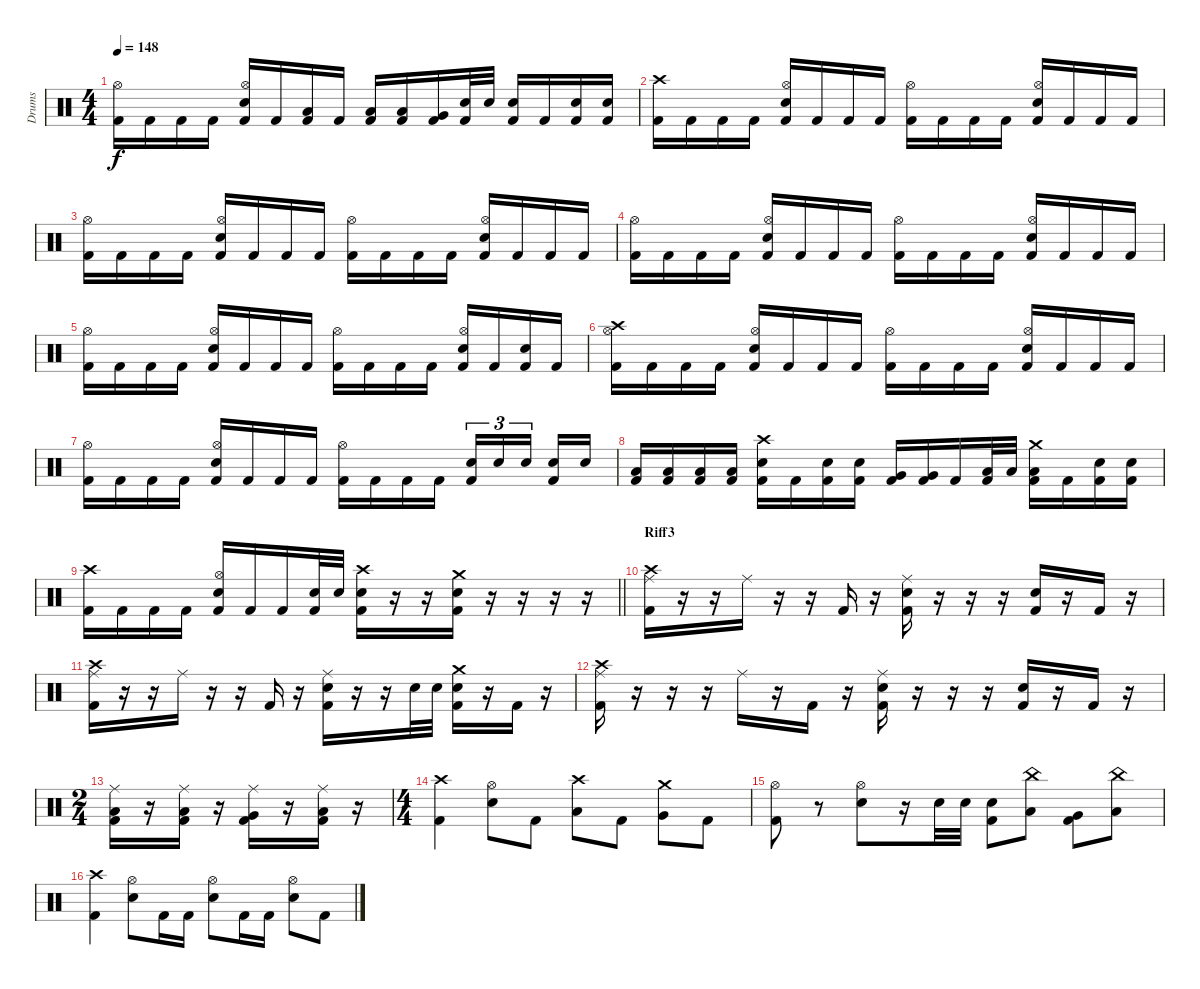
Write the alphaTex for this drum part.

\track ("Drums" "Drums") {instrument percussion}
\staff {score}
\articulation defaults
\ts (4 4)
\tempo 148
\clef neutral
\ks c
("Kick (hit) 2" "Hi-Hat (open)").16{dy f} "Kick (hit) 2".16 "Kick (hit) 2".16 "Kick (hit) 2".16 ("Kick (hit) 2" "Electric Snare (hit)" "Hi-Hat (open)").16 "Kick (hit) 2".16 ("Kick (hit) 2" "Low Tom (hit)").16 "Kick (hit) 2".16 ("Kick (hit) 2" "Low Tom (hit)").16 ("Kick (hit) 2" "Low Tom (hit)").16 ("Kick (hit) 2" "Very Low Tom (hit)").16 ("Kick (hit) 2" "Electric Snare (hit)").32 "Electric Snare (hit)".32 ("Kick (hit) 2" "Electric Snare (hit)").16 "Kick (hit) 2".16 ("Kick (hit) 2" "Electric Snare (hit)").16 ("Kick (hit) 2" "Electric Snare (hit)").16 |
("Kick (hit) 2" "Crash high (hit)").16 "Kick (hit) 2".16 "Kick (hit) 2".16 "Kick (hit) 2".16 ("Kick (hit) 2" "Electric Snare (hit)" "Hi-Hat (open)").16 "Kick (hit) 2".16 "Kick (hit) 2".16 "Kick (hit) 2".16 ("Kick (hit) 2" "Hi-Hat (open)").16 "Kick (hit) 2".16 "Kick (hit) 2".16 "Kick (hit) 2".16 ("Kick (hit) 2" "Electric Snare (hit)" "Hi-Hat (open)").16 "Kick (hit) 2".16 "Kick (hit) 2".16 "Kick (hit) 2".16 |
("Kick (hit) 2" "Hi-Hat (open)").16 "Kick (hit) 2".16 "Kick (hit) 2".16 "Kick (hit) 2".16 ("Kick (hit) 2" "Electric Snare (hit)" "Hi-Hat (open)").16 "Kick (hit) 2".16 "Kick (hit) 2".16 "Kick (hit) 2".16 ("Kick (hit) 2" "Hi-Hat (open)").16 "Kick (hit) 2".16 "Kick (hit) 2".16 "Kick (hit) 2".16 ("Kick (hit) 2" "Electric Snare (hit)" "Hi-Hat (open)").16 "Kick (hit) 2".16 "Kick (hit) 2".16 "Kick (hit) 2".16 |
("Kick (hit) 2" "Hi-Hat (open)").16 "Kick (hit) 2".16 "Kick (hit) 2".16 "Kick (hit) 2".16 ("Kick (hit) 2" "Electric Snare (hit)" "Hi-Hat (open)").16 "Kick (hit) 2".16 "Kick (hit) 2".16 "Kick (hit) 2".16 ("Kick (hit) 2" "Hi-Hat (open)").16 "Kick (hit) 2".16 "Kick (hit) 2".16 "Kick (hit) 2".16 ("Kick (hit) 2" "Electric Snare (hit)" "Hi-Hat (open)").16 "Kick (hit) 2".16 "Kick (hit) 2".16 "Kick (hit) 2".16 |
("Kick (hit) 2" "Hi-Hat (open)").16 "Kick (hit) 2".16 "Kick (hit) 2".16 "Kick (hit) 2".16 ("Kick (hit) 2" "Electric Snare (hit)" "Hi-Hat (open)").16 "Kick (hit) 2".16 "Kick (hit) 2".16 "Kick (hit) 2".16 ("Kick (hit) 2" "Hi-Hat (open)").16 "Kick (hit) 2".16 "Kick (hit) 2".16 "Kick (hit) 2".16 ("Kick (hit) 2" "Electric Snare (hit)" "Hi-Hat (open)").16 "Kick (hit) 2".16 ("Kick (hit) 2" "Electric Snare (hit)").16 "Kick (hit) 2".16 |
("Kick (hit) 2" "Hi-Hat (open)" "Crash high (hit)").16 "Kick (hit) 2".16 "Kick (hit) 2".16 "Kick (hit) 2".16 ("Kick (hit) 2" "Electric Snare (hit)" "Hi-Hat (open)").16 "Kick (hit) 2".16 "Kick (hit) 2".16 "Kick (hit) 2".16 ("Kick (hit) 2" "Hi-Hat (open)").16 "Kick (hit) 2".16 "Kick (hit) 2".16 "Kick (hit) 2".16 ("Kick (hit) 2" "Electric Snare (hit)" "Hi-Hat (open)").16 "Kick (hit) 2".16 "Kick (hit) 2".16 "Kick (hit) 2".16 |
("Kick (hit) 2" "Hi-Hat (open)").16 "Kick (hit) 2".16 "Kick (hit) 2".16 "Kick (hit) 2".16 ("Kick (hit) 2" "Electric Snare (hit)" "Hi-Hat (open)").16 "Kick (hit) 2".16 "Kick (hit) 2".16 "Kick (hit) 2".16 ("Kick (hit) 2" "Hi-Hat (open)").16 "Kick (hit) 2".16 "Kick (hit) 2".16 "Kick (hit) 2".16 ("Kick (hit) 2" "Electric Snare (hit)").16{tu (3 2)} "Electric Snare (hit)".16{tu (3 2)} "Electric Snare (hit)".16{tu (3 2)} ("Kick (hit) 2" "Electric Snare (hit)").16 "Electric Snare (hit)".16 |
("Kick (hit) 2" "Low Tom (hit)").16 ("Kick (hit) 2" "Low Tom (hit)").16 ("Kick (hit) 2" "Low Tom (hit)").16 ("Kick (hit) 2" "Low Tom (hit)").16 ("Kick (hit) 2" "Electric Snare (hit)" "Crash high (hit)").16 "Kick (hit) 2".16 ("Kick (hit) 2" "Electric Snare (hit)").16 ("Kick (hit) 2" "Electric Snare (hit)").16 ("Kick (hit) 2" "Very Low Tom (hit)").16 ("Kick (hit) 2" "Very Low Tom (hit)").16 "Kick (hit) 2".16 ("Kick (hit) 2" "Low Tom (hit)").32 "Low Tom (hit)".32 ("Kick (hit) 2" "Low Tom (hit)" "Crash medium (hit)").16 "Kick (hit) 2".16 ("Kick (hit) 2" "Electric Snare (hit)").16 ("Kick (hit) 2" "Electric Snare (hit)").16 |
\barLineRight lightlight
("Kick (hit) 2" "Crash high (hit)").16 "Kick (hit) 2".16 "Kick (hit) 2".16 "Kick (hit) 2".16 ("Kick (hit) 2" "Electric Snare (hit)" "Hi-Hat (open)").16 "Kick (hit) 2".16 "Kick (hit) 2".16 ("Kick (hit) 2" "Electric Snare (hit)").32 "Electric Snare (hit)".32 ("Kick (hit) 2" "Electric Snare (hit)" "Crash high (hit)").16 r.16 r.16 ("Kick (hit) 2" "Electric Snare (hit)" "Crash medium (hit)").16 r.16 r.16 r.16 r.16 |
\section ("" "Riff3")
("Kick (hit) 2" "Ride (middle)" "Crash high (hit)").16 r.16 r.16 "Ride (middle)".16 r.16 r.16 "Kick (hit) 2".16 r.16 ("Kick (hit) 2" "Electric Snare (hit)" "Ride (middle)").16 r.16 r.16 r.16 ("Kick (hit) 2" "Electric Snare (hit)").16 r.16 "Kick (hit) 2".16 r.16 |
("Kick (hit) 2" "Ride (middle)" "Crash high (hit)").16 r.16 r.16 "Ride (middle)".16 r.16 r.16 "Kick (hit) 2".16 r.16 ("Kick (hit) 2" "Electric Snare (hit)" "Ride (middle)").16 r.16 r.16 "Electric Snare (hit)".32 "Electric Snare (hit)".32 ("Kick (hit) 2" "Electric Snare (hit)" "Crash medium (hit)").16 r.16 "Kick (hit) 2".16 r.16 |
("Kick (hit) 2" "Ride (middle)" "Crash high (hit)").16 r.16 r.16 r.16 "Ride (middle)".16 r.16 "Kick (hit) 2".16 r.16 ("Kick (hit) 2" "Electric Snare (hit)" "Ride (middle)").16 r.16 r.16 r.16 ("Kick (hit) 2" "Electric Snare (hit)").16 r.16 "Kick (hit) 2".16 r.16 |
\ts (2 4)
("Kick (hit) 2" "Low Tom (hit)" "Ride (middle)").16 r.16 ("Kick (hit) 2" "Low Tom (hit)" "Ride (middle)").16 r.16 ("Kick (hit) 2" "Very Low Tom (hit)" "Ride (middle)").16 r.16 ("Kick (hit) 2" "Low Floor Tom (hit)" "Ride (middle)").16 r.16 |
\ts (4 4)
("Kick (hit) 2" "Crash high (hit)").4 ("Electric Snare (hit)" "Hi-Hat (open)").8 "Kick (hit) 2".8 ("Low Tom (hit)" "Crash high (hit)").8 "Kick (hit) 2".8 ("Very Low Tom (hit)" "Crash medium (hit)").8 "Kick (hit) 2".8 |
("Kick (hit) 2" "Hi-Hat (open)").8 r.8 ("Electric Snare (hit)" "Hi-Hat (open)").8 r.16 "Electric Snare (hit)".32 "Electric Snare (hit)".32 ("Kick (hit) 2" "Electric Snare (hit)").8 ("Low Tom (hit)" "China (hit)").8 ("Kick (hit) 2" "Very Low Tom (hit)").8 ("Low Floor Tom (hit)" "China (hit)").8 |
("Kick (hit) 2" "Crash high (hit)").4 ("Electric Snare (hit)" "Hi-Hat (open)").8 "Kick (hit) 2".16 "Kick (hit) 2".16 ("Electric Snare (hit)" "Hi-Hat (open)").8 "Kick (hit) 2".16 "Kick (hit) 2".16 ("Electric Snare (hit)" "Hi-Hat (open)").8 "Kick (hit) 2".8
